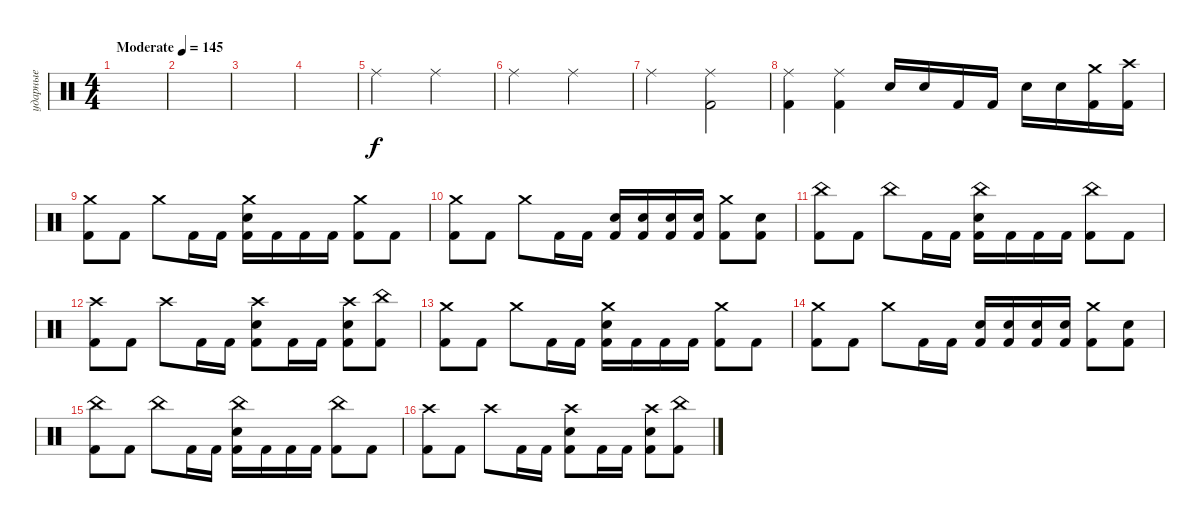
\track (" ударные" " ударные") {instrument percussion}
\staff {score}
\articulation defaults
\ts (4 4)
\tempo (145 "Moderate")
\clef neutral
\ks c
|
|
|
|
"Ride (middle)".2 "Ride (middle)".2 |
"Ride (middle)".2 "Ride (middle)".2 |
"Ride (middle)".2 ("Ride (middle)" "Kick (hit) 2").2 |
("Ride (middle)" "Kick (hit) 2").4 ("Ride (middle)" "Kick (hit) 2").4 "Electric Snare (hit)".16 "Electric Snare (hit)".16 "Kick (hit) 2".16 "Kick (hit) 2".16 "Electric Snare (hit)".16 "Electric Snare (hit)".16 ("Crash medium (hit)" "Kick (hit) 2").16 ("Crash high (hit)" "Kick (hit) 2").16 |
("Crash medium (hit)" "Kick (hit) 2").8 "Kick (hit) 2".8 "Crash medium (hit)".8 "Kick (hit) 2".16 "Kick (hit) 2".16 ("Electric Snare (hit)" "Crash medium (hit)" "Kick (hit) 2").16 "Kick (hit) 2".16 "Kick (hit) 2".16 "Kick (hit) 2".16 ("Crash medium (hit)" "Kick (hit) 2").8 "Kick (hit) 2".8 |
("Crash medium (hit)" "Kick (hit) 2").8 "Kick (hit) 2".8 "Crash medium (hit)".8 "Kick (hit) 2".16 "Kick (hit) 2".16 ("Electric Snare (hit)" "Kick (hit) 2").16 ("Electric Snare (hit)" "Kick (hit) 2").16 ("Electric Snare (hit)" "Kick (hit) 2").16 ("Electric Snare (hit)" "Kick (hit) 2").16 ("Crash medium (hit)" "Kick (hit) 2").8 ("Electric Snare (hit)" "Kick (hit) 2").8 |
("China (hit)" "Kick (hit) 2").8 "Kick (hit) 2".8 "China (hit)".8 "Kick (hit) 2".16 "Kick (hit) 2".16 ("Electric Snare (hit)" "China (hit)" "Kick (hit) 2").16 "Kick (hit) 2".16 "Kick (hit) 2".16 "Kick (hit) 2".16 ("China (hit)" "Kick (hit) 2").8 "Kick (hit) 2".8 |
("Crash high (hit)" "Kick (hit) 2").8 "Kick (hit) 2".8 "Crash high (hit)".8 "Kick (hit) 2".16 "Kick (hit) 2".16 ("Crash high (hit)" "Electric Snare (hit)" "Kick (hit) 2").8 "Kick (hit) 2".16 "Kick (hit) 2".16 ("Crash high (hit)" "Electric Snare (hit)" "Kick (hit) 2").8 ("China (hit)" "Kick (hit) 2").8 |
("Crash medium (hit)" "Kick (hit) 2").8 "Kick (hit) 2".8 "Crash medium (hit)".8 "Kick (hit) 2".16 "Kick (hit) 2".16 ("Electric Snare (hit)" "Crash medium (hit)" "Kick (hit) 2").16 "Kick (hit) 2".16 "Kick (hit) 2".16 "Kick (hit) 2".16 ("Crash medium (hit)" "Kick (hit) 2").8 "Kick (hit) 2".8 |
("Crash medium (hit)" "Kick (hit) 2").8 "Kick (hit) 2".8 "Crash medium (hit)".8 "Kick (hit) 2".16 "Kick (hit) 2".16 ("Electric Snare (hit)" "Kick (hit) 2").16 ("Electric Snare (hit)" "Kick (hit) 2").16 ("Electric Snare (hit)" "Kick (hit) 2").16 ("Electric Snare (hit)" "Kick (hit) 2").16 ("Crash medium (hit)" "Kick (hit) 2").8 ("Electric Snare (hit)" "Kick (hit) 2").8 |
("China (hit)" "Kick (hit) 2").8 "Kick (hit) 2".8 "China (hit)".8 "Kick (hit) 2".16 "Kick (hit) 2".16 ("Electric Snare (hit)" "China (hit)" "Kick (hit) 2").16 "Kick (hit) 2".16 "Kick (hit) 2".16 "Kick (hit) 2".16 ("China (hit)" "Kick (hit) 2").8 "Kick (hit) 2".8 |
("Crash high (hit)" "Kick (hit) 2").8 "Kick (hit) 2".8 "Crash high (hit)".8 "Kick (hit) 2".16 "Kick (hit) 2".16 ("Crash high (hit)" "Electric Snare (hit)" "Kick (hit) 2").8 "Kick (hit) 2".16 "Kick (hit) 2".16 ("Crash high (hit)" "Electric Snare (hit)" "Kick (hit) 2").8 ("China (hit)" "Kick (hit) 2").8
